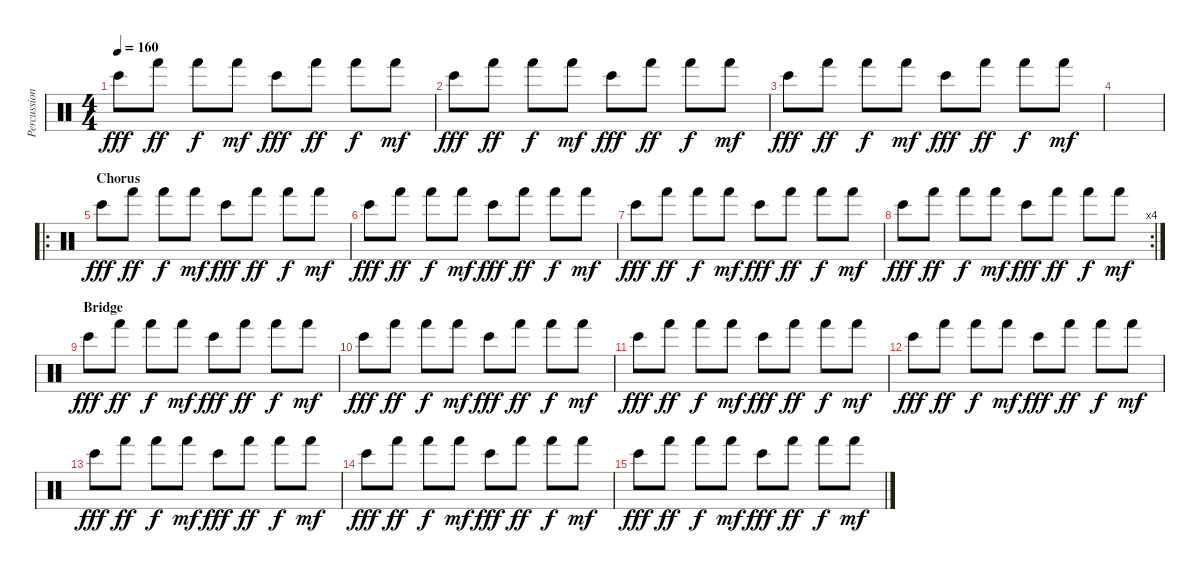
\track ("Percussion" "Percussion") {instrument percussion}
\staff {score}
\articulation defaults
\ts (4 4)
\tempo 160
\clef neutral
\ks c "Bongo High (hit)".8{dy fff} "Hand (hit)".8{dy ff} "Hand (hit)".8{dy f} "Hand (hit)".8{dy mf} "Bongo High (hit)".8{dy fff} "Hand (hit)".8{dy ff} "Hand (hit)".8{dy f} "Hand (hit)".8{dy mf}
|
"Bongo High (hit)".8{dy fff} "Hand (hit)".8{dy ff} "Hand (hit)".8{dy f} "Hand (hit)".8{dy mf} "Bongo High (hit)".8{dy fff} "Hand (hit)".8{dy ff} "Hand (hit)".8{dy f} "Hand (hit)".8{dy mf} |
"Bongo High (hit)".8{dy fff} "Hand (hit)".8{dy ff} "Hand (hit)".8{dy f} "Hand (hit)".8{dy mf} "Bongo High (hit)".8{dy fff} "Hand (hit)".8{dy ff} "Hand (hit)".8{dy f} "Hand (hit)".8{dy mf} |
|
\ro
\section ("" "Chorus")
"Bongo High (hit)".8{dy fff} "Hand (hit)".8{dy ff} "Hand (hit)".8{dy f} "Hand (hit)".8{dy mf} "Bongo High (hit)".8{dy fff} "Hand (hit)".8{dy ff} "Hand (hit)".8{dy f} "Hand (hit)".8{dy mf} |
"Bongo High (hit)".8{dy fff} "Hand (hit)".8{dy ff} "Hand (hit)".8{dy f} "Hand (hit)".8{dy mf} "Bongo High (hit)".8{dy fff} "Hand (hit)".8{dy ff} "Hand (hit)".8{dy f} "Hand (hit)".8{dy mf} |
"Bongo High (hit)".8{dy fff} "Hand (hit)".8{dy ff} "Hand (hit)".8{dy f} "Hand (hit)".8{dy mf} "Bongo High (hit)".8{dy fff} "Hand (hit)".8{dy ff} "Hand (hit)".8{dy f} "Hand (hit)".8{dy mf} |
\rc 4 "Bongo High (hit)".8{dy fff} "Hand (hit)".8{dy ff} "Hand (hit)".8{dy f} "Hand (hit)".8{dy mf} "Bongo High (hit)".8{dy fff} "Hand (hit)".8{dy ff} "Hand (hit)".8{dy f} "Hand (hit)".8{dy mf}
|
\section ("" "Bridge")
"Bongo High (hit)".8{dy fff} "Hand (hit)".8{dy ff} "Hand (hit)".8{dy f} "Hand (hit)".8{dy mf} "Bongo High (hit)".8{dy fff} "Hand (hit)".8{dy ff} "Hand (hit)".8{dy f} "Hand (hit)".8{dy mf} |
"Bongo High (hit)".8{dy fff} "Hand (hit)".8{dy ff} "Hand (hit)".8{dy f} "Hand (hit)".8{dy mf} "Bongo High (hit)".8{dy fff} "Hand (hit)".8{dy ff} "Hand (hit)".8{dy f} "Hand (hit)".8{dy mf} |
"Bongo High (hit)".8{dy fff} "Hand (hit)".8{dy ff} "Hand (hit)".8{dy f} "Hand (hit)".8{dy mf} "Bongo High (hit)".8{dy fff} "Hand (hit)".8{dy ff} "Hand (hit)".8{dy f} "Hand (hit)".8{dy mf} |
"Bongo High (hit)".8{dy fff} "Hand (hit)".8{dy ff} "Hand (hit)".8{dy f} "Hand (hit)".8{dy mf} "Bongo High (hit)".8{dy fff} "Hand (hit)".8{dy ff} "Hand (hit)".8{dy f} "Hand (hit)".8{dy mf} |
"Bongo High (hit)".8{dy fff} "Hand (hit)".8{dy ff} "Hand (hit)".8{dy f} "Hand (hit)".8{dy mf} "Bongo High (hit)".8{dy fff} "Hand (hit)".8{dy ff} "Hand (hit)".8{dy f} "Hand (hit)".8{dy mf} |
"Bongo High (hit)".8{dy fff} "Hand (hit)".8{dy ff} "Hand (hit)".8{dy f} "Hand (hit)".8{dy mf} "Bongo High (hit)".8{dy fff} "Hand (hit)".8{dy ff} "Hand (hit)".8{dy f} "Hand (hit)".8{dy mf} |
"Bongo High (hit)".8{dy fff} "Hand (hit)".8{dy ff} "Hand (hit)".8{dy f} "Hand (hit)".8{dy mf} "Bongo High (hit)".8{dy fff} "Hand (hit)".8{dy ff} "Hand (hit)".8{dy f} "Hand (hit)".8{dy mf}
